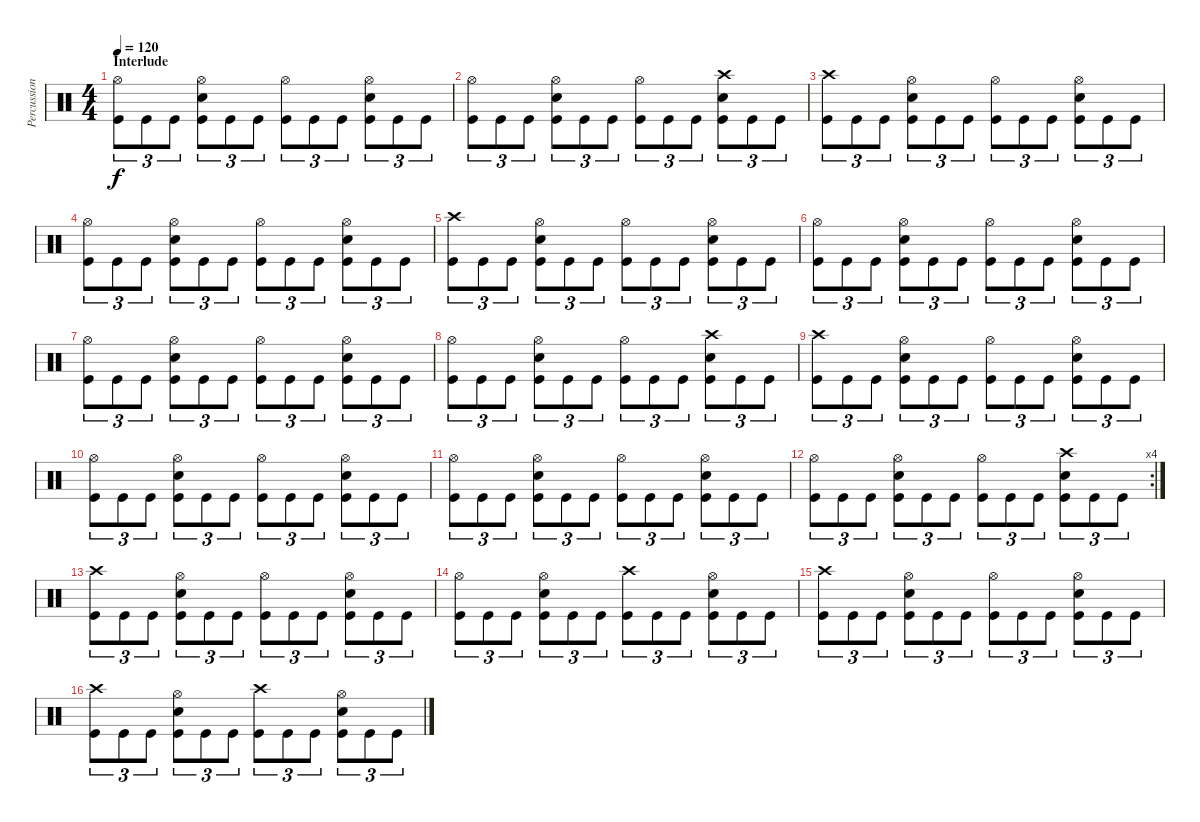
\track ("Percussion" "Percussion") {instrument percussion}
\staff {score}
\articulation defaults
\ts (4 4)
\section ("" "Interlude")
\tempo 120
\clef neutral
\ks c
("Hi-Hat (open)" "Kick (hit)").8{tu (3 2) dy f} "Kick (hit)".8{tu (3 2)} "Kick (hit)".8{tu (3 2)} ("Hi-Hat (open)" "Snare (hit) 2" "Kick (hit)").8{tu (3 2)} "Kick (hit)".8{tu (3 2)} "Kick (hit)".8{tu (3 2)} ("Hi-Hat (open)" "Kick (hit)").8{tu (3 2)} "Kick (hit)".8{tu (3 2)} "Kick (hit)".8{tu (3 2)} ("Hi-Hat (open)" "Snare (hit) 2" "Kick (hit)").8{tu (3 2)} "Kick (hit)".8{tu (3 2)} "Kick (hit)".8{tu (3 2)} |
("Hi-Hat (open)" "Kick (hit)").8{tu (3 2)} "Kick (hit)".8{tu (3 2)} "Kick (hit)".8{tu (3 2)} ("Hi-Hat (open)" "Snare (hit) 2" "Kick (hit)").8{tu (3 2)} "Kick (hit)".8{tu (3 2)} "Kick (hit)".8{tu (3 2)} ("Hi-Hat (open)" "Kick (hit)").8{tu (3 2)} "Kick (hit)".8{tu (3 2)} "Kick (hit)".8{tu (3 2)} ("Crash high (hit)" "Snare (hit) 2" "Kick (hit)").8{tu (3 2)} "Kick (hit)".8{tu (3 2)} "Kick (hit)".8{tu (3 2)} |
("Crash high (hit)" "Kick (hit)").8{tu (3 2)} "Kick (hit)".8{tu (3 2)} "Kick (hit)".8{tu (3 2)} ("Hi-Hat (open)" "Snare (hit) 2" "Kick (hit)").8{tu (3 2)} "Kick (hit)".8{tu (3 2)} "Kick (hit)".8{tu (3 2)} ("Hi-Hat (open)" "Kick (hit)").8{tu (3 2)} "Kick (hit)".8{tu (3 2)} "Kick (hit)".8{tu (3 2)} ("Hi-Hat (open)" "Snare (hit) 2" "Kick (hit)").8{tu (3 2)} "Kick (hit)".8{tu (3 2)} "Kick (hit)".8{tu (3 2)} |
("Hi-Hat (open)" "Kick (hit)").8{tu (3 2)} "Kick (hit)".8{tu (3 2)} "Kick (hit)".8{tu (3 2)} ("Hi-Hat (open)" "Snare (hit) 2" "Kick (hit)").8{tu (3 2)} "Kick (hit)".8{tu (3 2)} "Kick (hit)".8{tu (3 2)} ("Hi-Hat (open)" "Kick (hit)").8{tu (3 2)} "Kick (hit)".8{tu (3 2)} "Kick (hit)".8{tu (3 2)} ("Hi-Hat (open)" "Snare (hit) 2" "Kick (hit)").8{tu (3 2)} "Kick (hit)".8{tu (3 2)} "Kick (hit)".8{tu (3 2)} |
("Crash high (hit)" "Kick (hit)").8{tu (3 2)} "Kick (hit)".8{tu (3 2)} "Kick (hit)".8{tu (3 2)} ("Hi-Hat (open)" "Snare (hit) 2" "Kick (hit)").8{tu (3 2)} "Kick (hit)".8{tu (3 2)} "Kick (hit)".8{tu (3 2)} ("Hi-Hat (open)" "Kick (hit)").8{tu (3 2)} "Kick (hit)".8{tu (3 2)} "Kick (hit)".8{tu (3 2)} ("Hi-Hat (open)" "Snare (hit) 2" "Kick (hit)").8{tu (3 2)} "Kick (hit)".8{tu (3 2)} "Kick (hit)".8{tu (3 2)} |
("Hi-Hat (open)" "Kick (hit)").8{tu (3 2)} "Kick (hit)".8{tu (3 2)} "Kick (hit)".8{tu (3 2)} ("Hi-Hat (open)" "Snare (hit) 2" "Kick (hit)").8{tu (3 2)} "Kick (hit)".8{tu (3 2)} "Kick (hit)".8{tu (3 2)} ("Hi-Hat (open)" "Kick (hit)").8{tu (3 2)} "Kick (hit)".8{tu (3 2)} "Kick (hit)".8{tu (3 2)} ("Hi-Hat (open)" "Snare (hit) 2" "Kick (hit)").8{tu (3 2)} "Kick (hit)".8{tu (3 2)} "Kick (hit)".8{tu (3 2)} |
("Hi-Hat (open)" "Kick (hit)").8{tu (3 2)} "Kick (hit)".8{tu (3 2)} "Kick (hit)".8{tu (3 2)} ("Hi-Hat (open)" "Snare (hit) 2" "Kick (hit)").8{tu (3 2)} "Kick (hit)".8{tu (3 2)} "Kick (hit)".8{tu (3 2)} ("Hi-Hat (open)" "Kick (hit)").8{tu (3 2)} "Kick (hit)".8{tu (3 2)} "Kick (hit)".8{tu (3 2)} ("Hi-Hat (open)" "Snare (hit) 2" "Kick (hit)").8{tu (3 2)} "Kick (hit)".8{tu (3 2)} "Kick (hit)".8{tu (3 2)} |
("Hi-Hat (open)" "Kick (hit)").8{tu (3 2)} "Kick (hit)".8{tu (3 2)} "Kick (hit)".8{tu (3 2)} ("Hi-Hat (open)" "Snare (hit) 2" "Kick (hit)").8{tu (3 2)} "Kick (hit)".8{tu (3 2)} "Kick (hit)".8{tu (3 2)} ("Hi-Hat (open)" "Kick (hit)").8{tu (3 2)} "Kick (hit)".8{tu (3 2)} "Kick (hit)".8{tu (3 2)} ("Crash high (hit)" "Snare (hit) 2" "Kick (hit)").8{tu (3 2)} "Kick (hit)".8{tu (3 2)} "Kick (hit)".8{tu (3 2)} |
("Crash high (hit)" "Kick (hit)").8{tu (3 2)} "Kick (hit)".8{tu (3 2)} "Kick (hit)".8{tu (3 2)} ("Hi-Hat (open)" "Snare (hit) 2" "Kick (hit)").8{tu (3 2)} "Kick (hit)".8{tu (3 2)} "Kick (hit)".8{tu (3 2)} ("Hi-Hat (open)" "Kick (hit)").8{tu (3 2)} "Kick (hit)".8{tu (3 2)} "Kick (hit)".8{tu (3 2)} ("Hi-Hat (open)" "Snare (hit) 2" "Kick (hit)").8{tu (3 2)} "Kick (hit)".8{tu (3 2)} "Kick (hit)".8{tu (3 2)} |
("Hi-Hat (open)" "Kick (hit)").8{tu (3 2)} "Kick (hit)".8{tu (3 2)} "Kick (hit)".8{tu (3 2)} ("Hi-Hat (open)" "Snare (hit) 2" "Kick (hit)").8{tu (3 2)} "Kick (hit)".8{tu (3 2)} "Kick (hit)".8{tu (3 2)} ("Hi-Hat (open)" "Kick (hit)").8{tu (3 2)} "Kick (hit)".8{tu (3 2)} "Kick (hit)".8{tu (3 2)} ("Hi-Hat (open)" "Snare (hit) 2" "Kick (hit)").8{tu (3 2)} "Kick (hit)".8{tu (3 2)} "Kick (hit)".8{tu (3 2)} |
("Hi-Hat (open)" "Kick (hit)").8{tu (3 2)} "Kick (hit)".8{tu (3 2)} "Kick (hit)".8{tu (3 2)} ("Hi-Hat (open)" "Snare (hit) 2" "Kick (hit)").8{tu (3 2)} "Kick (hit)".8{tu (3 2)} "Kick (hit)".8{tu (3 2)} ("Hi-Hat (open)" "Kick (hit)").8{tu (3 2)} "Kick (hit)".8{tu (3 2)} "Kick (hit)".8{tu (3 2)} ("Hi-Hat (open)" "Snare (hit) 2" "Kick (hit)").8{tu (3 2)} "Kick (hit)".8{tu (3 2)} "Kick (hit)".8{tu (3 2)} |
\rc 4
("Hi-Hat (open)" "Kick (hit)").8{tu (3 2)} "Kick (hit)".8{tu (3 2)} "Kick (hit)".8{tu (3 2)} ("Hi-Hat (open)" "Snare (hit) 2" "Kick (hit)").8{tu (3 2)} "Kick (hit)".8{tu (3 2)} "Kick (hit)".8{tu (3 2)} ("Hi-Hat (open)" "Kick (hit)").8{tu (3 2)} "Kick (hit)".8{tu (3 2)} "Kick (hit)".8{tu (3 2)} ("Crash high (hit)" "Snare (hit) 2" "Kick (hit)").8{tu (3 2)} "Kick (hit)".8{tu (3 2)} "Kick (hit)".8{tu (3 2)} |
("Crash high (hit)" "Kick (hit)").8{tu (3 2)} "Kick (hit)".8{tu (3 2)} "Kick (hit)".8{tu (3 2)} ("Hi-Hat (open)" "Snare (hit) 2" "Kick (hit)").8{tu (3 2)} "Kick (hit)".8{tu (3 2)} "Kick (hit)".8{tu (3 2)} ("Hi-Hat (open)" "Kick (hit)").8{tu (3 2)} "Kick (hit)".8{tu (3 2)} "Kick (hit)".8{tu (3 2)} ("Hi-Hat (open)" "Snare (hit) 2" "Kick (hit)").8{tu (3 2)} "Kick (hit)".8{tu (3 2)} "Kick (hit)".8{tu (3 2)} |
("Hi-Hat (open)" "Kick (hit)").8{tu (3 2)} "Kick (hit)".8{tu (3 2)} "Kick (hit)".8{tu (3 2)} ("Hi-Hat (open)" "Snare (hit) 2" "Kick (hit)").8{tu (3 2)} "Kick (hit)".8{tu (3 2)} "Kick (hit)".8{tu (3 2)} ("Crash high (hit)" "Kick (hit)").8{tu (3 2)} "Kick (hit)".8{tu (3 2)} "Kick (hit)".8{tu (3 2)} ("Hi-Hat (open)" "Snare (hit) 2" "Kick (hit)").8{tu (3 2)} "Kick (hit)".8{tu (3 2)} "Kick (hit)".8{tu (3 2)} |
("Crash high (hit)" "Kick (hit)").8{tu (3 2)} "Kick (hit)".8{tu (3 2)} "Kick (hit)".8{tu (3 2)} ("Hi-Hat (open)" "Snare (hit) 2" "Kick (hit)").8{tu (3 2)} "Kick (hit)".8{tu (3 2)} "Kick (hit)".8{tu (3 2)} ("Hi-Hat (open)" "Kick (hit)").8{tu (3 2)} "Kick (hit)".8{tu (3 2)} "Kick (hit)".8{tu (3 2)} ("Hi-Hat (open)" "Snare (hit) 2" "Kick (hit)").8{tu (3 2)} "Kick (hit)".8{tu (3 2)} "Kick (hit)".8{tu (3 2)} |
("Crash high (hit)" "Kick (hit)").8{tu (3 2)} "Kick (hit)".8{tu (3 2)} "Kick (hit)".8{tu (3 2)} ("Hi-Hat (open)" "Snare (hit) 2" "Kick (hit)").8{tu (3 2)} "Kick (hit)".8{tu (3 2)} "Kick (hit)".8{tu (3 2)} ("Crash high (hit)" "Kick (hit)").8{tu (3 2)} "Kick (hit)".8{tu (3 2)} "Kick (hit)".8{tu (3 2)} ("Hi-Hat (open)" "Snare (hit) 2" "Kick (hit)").8{tu (3 2)} "Kick (hit)".8{tu (3 2)} "Kick (hit)".8{tu (3 2)}
